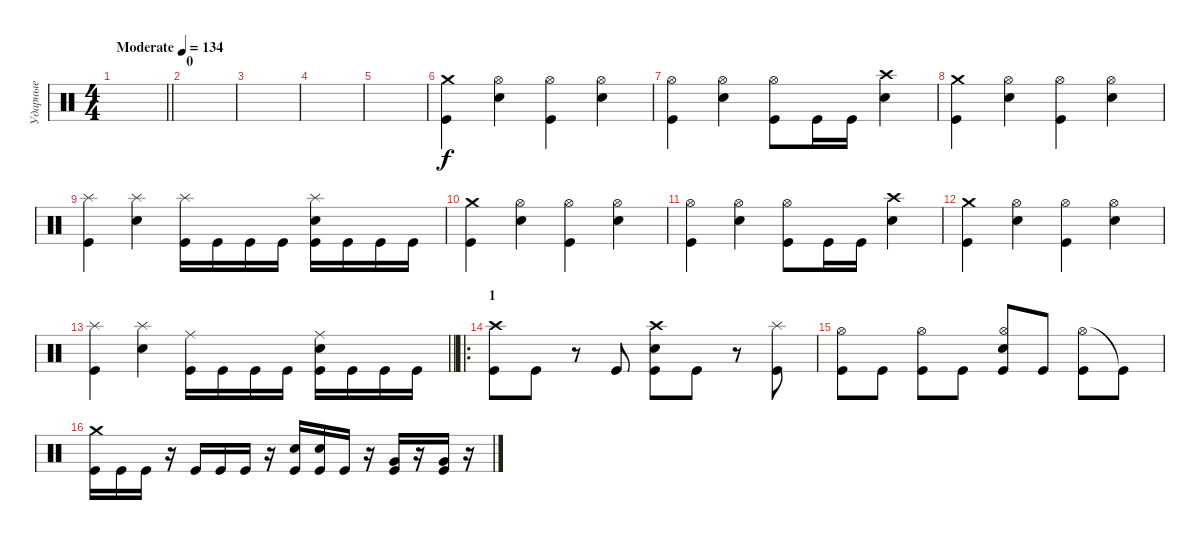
\track ("Ударные" "Ударные") {instrument percussion}
\staff {score}
\articulation defaults
\ts (4 4)
\tempo (134 "Moderate")
\clef neutral
\barLineRight lightlight
\ks c
|
\section ("" "0")
|
|
|
|
("Crash medium (hit)" "Kick (hit)").4 ("Hi-Hat (open)" "Electric Snare (hit)").4 ("Hi-Hat (open)" "Kick (hit)").4 ("Hi-Hat (open)" "Electric Snare (hit)").4 |
("Hi-Hat (open)" "Kick (hit)").4 ("Hi-Hat (open)" "Electric Snare (hit)").4 ("Hi-Hat (open)" "Kick (hit)").8 "Kick (hit)".16 "Kick (hit)".16 ("Crash high (hit)" "Electric Snare (hit)").4 |
("Crash medium (hit)" "Kick (hit)").4 ("Hi-Hat (open)" "Electric Snare (hit)").4 ("Hi-Hat (open)" "Kick (hit)").4 ("Hi-Hat (open)" "Electric Snare (hit)").4 |
("Splash (hit)" "Kick (hit)").4 ("Splash (hit)" "Electric Snare (hit)").4 ("Splash (hit)" "Kick (hit)").16 "Kick (hit)".16 "Kick (hit)".16 "Kick (hit)".16 ("Splash (hit)" "Electric Snare (hit)" "Kick (hit)").16 "Kick (hit)".16 "Kick (hit)".16 "Kick (hit)".16 |
("Crash medium (hit)" "Kick (hit)").4 ("Hi-Hat (open)" "Electric Snare (hit)").4 ("Hi-Hat (open)" "Kick (hit)").4 ("Hi-Hat (open)" "Electric Snare (hit)").4 |
("Hi-Hat (open)" "Kick (hit)").4 ("Hi-Hat (open)" "Electric Snare (hit)").4 ("Hi-Hat (open)" "Kick (hit)").8 "Kick (hit)".16 "Kick (hit)".16 ("Crash high (hit)" "Electric Snare (hit)").4 |
("Crash medium (hit)" "Kick (hit)").4 ("Hi-Hat (open)" "Electric Snare (hit)").4 ("Hi-Hat (open)" "Kick (hit)").4 ("Hi-Hat (open)" "Electric Snare (hit)").4 |
\barLineRight lightlight
("Splash (hit)" "Kick (hit)").4 ("Splash (hit)" "Electric Snare (hit)").4 ("Ride (middle)" "Kick (hit)").16 "Kick (hit)".16 "Kick (hit)".16 "Kick (hit)".16 ("Ride (middle)" "Electric Snare (hit)" "Kick (hit)").16 "Kick (hit)".16 "Kick (hit)".16 "Kick (hit)".16 |
\ro
\section ("" "1")
("Crash high (hit)" "Kick (hit)").8 "Kick (hit)".8 r.8 "Kick (hit)".8 ("Crash high (hit)" "Electric Snare (hit)" "Kick (hit)").8 "Kick (hit)".8 r.8 ("Splash (hit)" "Kick (hit)").8 |
("Hi-Hat (open)" "Kick (hit)").8 "Kick (hit)".8 ("Hi-Hat (open)" "Kick (hit)").8 "Kick (hit)".8 ("Hi-Hat (open)" "Electric Snare (hit)" "Kick (hit)").8 "Kick (hit)".8 ("Hi-Hat (open)" "Kick (hit)").8 "Kick (hit)"{t}.8 |
("Crash medium (hit)" "Kick (hit)").16 "Kick (hit)".16 "Kick (hit)".16 r.16 "Kick (hit)".16 "Kick (hit)".16 "Kick (hit)".16 r.16 ("Electric Snare (hit)" "Kick (hit)").16 ("Electric Snare (hit)" "Kick (hit)").16 "Kick (hit)".16 r.16 ("Very Low Tom (hit)" "Kick (hit)").16 r.16 ("Very Low Tom (hit)" "Kick (hit)").16 r.16
